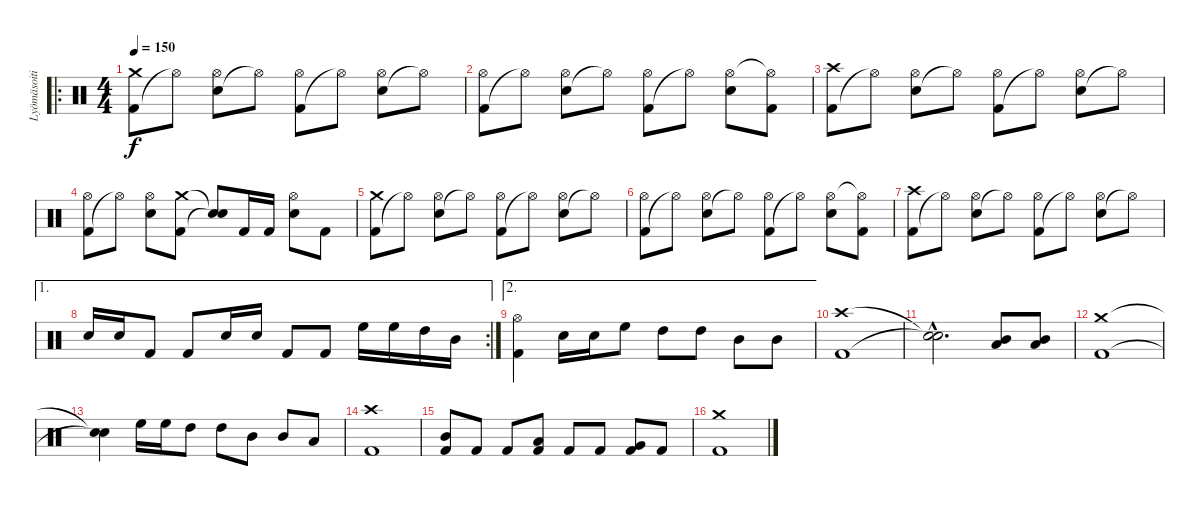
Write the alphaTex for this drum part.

\track ("Lyömäsoitin" "Lyömäsoiti") {instrument percussion}
\staff {score}
\articulation defaults
\ro
\ts (4 4)
\tempo 150
\clef neutral
\ks c
("Kick (hit) 2" "Crash medium (hit)").8{dy f} "Hi-Hat (open)"{t}.8 ("Electric Snare (hit)" "Hi-Hat (open)").8 "Hi-Hat (open)"{t}.8 ("Kick (hit) 2" "Hi-Hat (open)").8 "Hi-Hat (open)"{t}.8 ("Electric Snare (hit)" "Hi-Hat (open)").8 "Hi-Hat (open)"{t}.8 |
("Kick (hit) 2" "Hi-Hat (open)").8 "Hi-Hat (open)"{t}.8 ("Electric Snare (hit)" "Hi-Hat (open)").8 "Hi-Hat (open)"{t}.8 ("Kick (hit) 2" "Hi-Hat (open)").8 "Hi-Hat (open)"{t}.8 ("Electric Snare (hit)" "Hi-Hat (open)").8 ("Kick (hit) 2" "Hi-Hat (open)"{t}).8 |
("Kick (hit) 2" "Crash high (hit)").8 "Hi-Hat (open)"{t}.8 ("Electric Snare (hit)" "Hi-Hat (open)").8 "Hi-Hat (open)"{t}.8 ("Kick (hit) 2" "Hi-Hat (open)").8 "Hi-Hat (open)"{t}.8 ("Electric Snare (hit)" "Hi-Hat (open)").8 "Hi-Hat (open)"{t}.8 |
("Kick (hit) 2" "Hi-Hat (open)").8 "Hi-Hat (open)"{t}.8 ("Electric Snare (hit)" "Hi-Hat (open)").8 ("Kick (hit) 2" "Crash medium (hit)").8 ("Snare (hit)"{t} "Snare (hit)"{t}).8 "Kick (hit) 2".16 "Kick (hit) 2".16 ("Electric Snare (hit)" "Hi-Hat (open)").8 "Kick (hit) 2".8 |
("Kick (hit) 2" "Crash medium (hit)").8 "Hi-Hat (open)"{t}.8 ("Electric Snare (hit)" "Hi-Hat (open)").8 "Hi-Hat (open)"{t}.8 ("Kick (hit) 2" "Hi-Hat (open)").8 "Hi-Hat (open)"{t}.8 ("Electric Snare (hit)" "Hi-Hat (open)").8 "Hi-Hat (open)"{t}.8 |
("Kick (hit) 2" "Hi-Hat (open)").8 "Hi-Hat (open)"{t}.8 ("Electric Snare (hit)" "Hi-Hat (open)").8 "Hi-Hat (open)"{t}.8 ("Kick (hit) 2" "Hi-Hat (open)").8 "Hi-Hat (open)"{t}.8 ("Electric Snare (hit)" "Hi-Hat (open)").8 ("Kick (hit) 2" "Hi-Hat (open)"{t}).8 |
("Kick (hit) 2" "Crash high (hit)").8 "Hi-Hat (open)"{t}.8 ("Electric Snare (hit)" "Hi-Hat (open)").8 "Hi-Hat (open)"{t}.8 ("Kick (hit) 2" "Hi-Hat (open)").8 "Hi-Hat (open)"{t}.8 ("Electric Snare (hit)" "Hi-Hat (open)").8 "Hi-Hat (open)"{t}.8 |
\ae 1
\rc 2 "Electric Snare (hit)".16 "Electric Snare (hit)".16 "Kick (hit) 2".8 "Kick (hit) 2".8 "Electric Snare (hit)".16 "Electric Snare (hit)".16 "Kick (hit) 2".8 "Kick (hit) 2".8 "High Floor Tom (hit)".16 "High Floor Tom (hit)".16 "High Tom (hit)".16 "Mid Tom (hit)".16
|
\ae 2
("Kick (hit) 2" "Hi-Hat (open)").4 "Electric Snare (hit)".16 "Electric Snare (hit)".16 "High Floor Tom (hit)".8 "High Tom (hit)".8 "High Tom (hit)".8 "Mid Tom (hit)".8 "Mid Tom (hit)".8 |
("Kick (hit) 2" "Crash high (hit)").1 |
("Snare (hit)"{hac t} "Snare (hit)"{hac t}).2{d} ("Low Tom (hit)" "Mid Tom (hit)").8 ("Low Tom (hit)" "Mid Tom (hit)").8 |
("Kick (hit) 2" "Crash medium (hit)").1 |
("Snare (hit)"{t} "Snare (hit)"{t}).4 "High Floor Tom (hit)".16 "High Floor Tom (hit)".16 "High Tom (hit)".8 "High Tom (hit)".8 "Mid Tom (hit)".8 "Mid Tom (hit)".8 "Low Tom (hit)".8 |
("Kick (hit) 2" "Crash high (hit)").1 |
("Mid Tom (hit)" "Kick (hit) 2").8 "Kick (hit) 2".8 "Kick (hit) 2".8 ("Low Tom (hit)" "Kick (hit) 2").8 "Kick (hit) 2".8 "Kick (hit) 2".8 ("Very Low Tom (hit)" "Kick (hit) 2").8 "Kick (hit) 2".8 |
("Kick (hit) 2" "Crash medium (hit)").1
